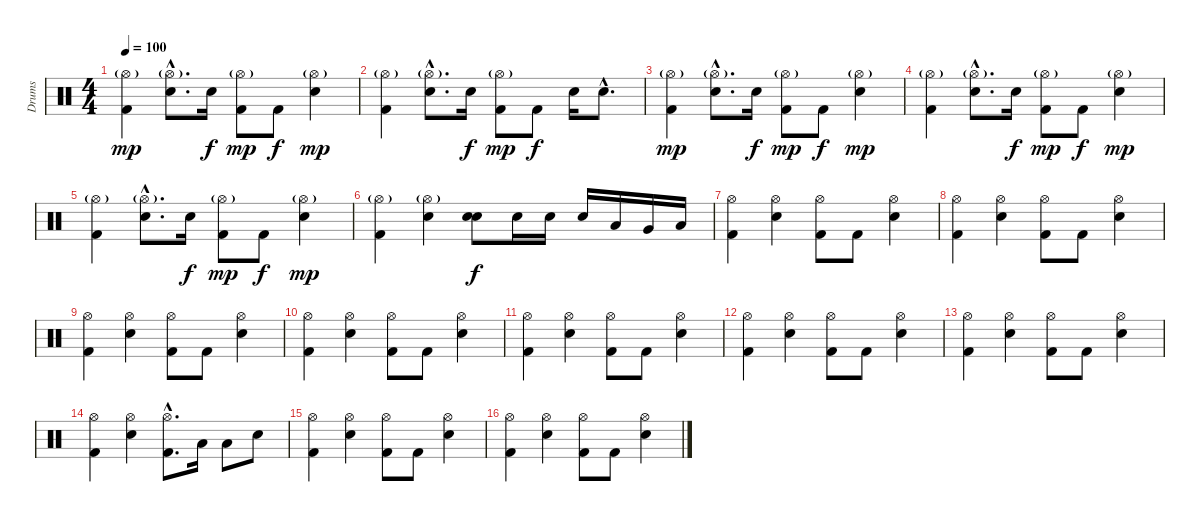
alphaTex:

\track ("Drums" "Drums") {instrument percussion}
\staff {score}
\articulation defaults
\ts (4 4)
\tempo 100
\clef neutral
\ks c
("Hi-Hat (open)"{g} "Kick (hit) 2").4{dy mp} ("Hi-Hat (open)"{g hac} "Electric Snare (hit)"{hac}).8{d} "Electric Snare (hit)".16{dy f} ("Hi-Hat (open)"{g} "Kick (hit) 2").8{dy mp} "Kick (hit) 2".8{dy f} ("Hi-Hat (open)"{g} "Electric Snare (hit)").4{dy mp} |
("Hi-Hat (open)"{g} "Kick (hit) 2").4 ("Hi-Hat (open)"{g hac} "Electric Snare (hit)"{hac}).8{d} "Electric Snare (hit)".16{dy f} ("Hi-Hat (open)"{g} "Kick (hit) 2").8{dy mp} "Kick (hit) 2".8{dy f} "Electric Snare (hit)".16 "Electric Snare (hit)"{hac}.8{d} |
("Hi-Hat (open)"{g} "Kick (hit) 2").4{dy mp} ("Hi-Hat (open)"{g hac} "Electric Snare (hit)"{hac}).8{d} "Electric Snare (hit)".16{dy f} ("Hi-Hat (open)"{g} "Kick (hit) 2").8{dy mp} "Kick (hit) 2".8{dy f} ("Hi-Hat (open)"{g} "Electric Snare (hit)").4{dy mp} |
("Hi-Hat (open)"{g} "Kick (hit) 2").4 ("Hi-Hat (open)"{g hac} "Electric Snare (hit)"{hac}).8{d} "Electric Snare (hit)".16{dy f} ("Hi-Hat (open)"{g} "Kick (hit) 2").8{dy mp} "Kick (hit) 2".8{dy f} ("Hi-Hat (open)"{g} "Electric Snare (hit)").4{dy mp} |
("Hi-Hat (open)"{g} "Kick (hit) 2").4 ("Hi-Hat (open)"{g hac} "Electric Snare (hit)"{hac}).8{d} "Electric Snare (hit)".16{dy f} ("Hi-Hat (open)"{g} "Kick (hit) 2").8{dy mp} "Kick (hit) 2".8{dy f} ("Hi-Hat (open)"{g} "Electric Snare (hit)").4{dy mp} |
("Hi-Hat (open)"{g} "Kick (hit) 2").4 ("Hi-Hat (open)"{g} "Electric Snare (hit)").4 ("Electric Snare (hit)" "Electric Snare (hit)").8{bd 240 dy f} "Electric Snare (hit)".16 "Electric Snare (hit)".16 "Electric Snare (hit)".16 "Low Tom (hit)".16 "Very Low Tom (hit)".16 "Low Floor Tom (hit)".16 |
("Hi-Hat (open)" "Kick (hit) 2").4 ("Hi-Hat (open)" "Electric Snare (hit)").4 ("Hi-Hat (open)" "Kick (hit) 2").8 "Kick (hit) 2".8 ("Hi-Hat (open)" "Electric Snare (hit)").4 |
("Hi-Hat (open)" "Kick (hit) 2").4 ("Hi-Hat (open)" "Electric Snare (hit)").4 ("Hi-Hat (open)" "Kick (hit) 2").8 "Kick (hit) 2".8 ("Hi-Hat (open)" "Electric Snare (hit)").4 |
("Hi-Hat (open)" "Kick (hit) 2").4 ("Hi-Hat (open)" "Electric Snare (hit)").4 ("Hi-Hat (open)" "Kick (hit) 2").8 "Kick (hit) 2".8 ("Hi-Hat (open)" "Electric Snare (hit)").4 |
("Hi-Hat (open)" "Kick (hit) 2").4 ("Hi-Hat (open)" "Electric Snare (hit)").4 ("Hi-Hat (open)" "Kick (hit) 2").8 "Kick (hit) 2".8 ("Hi-Hat (open)" "Electric Snare (hit)").4 |
("Hi-Hat (open)" "Kick (hit) 2").4 ("Hi-Hat (open)" "Electric Snare (hit)").4 ("Hi-Hat (open)" "Kick (hit) 2").8 "Kick (hit) 2".8 ("Hi-Hat (open)" "Electric Snare (hit)").4 |
("Hi-Hat (open)" "Kick (hit) 2").4 ("Hi-Hat (open)" "Electric Snare (hit)").4 ("Hi-Hat (open)" "Kick (hit) 2").8 "Kick (hit) 2".8 ("Hi-Hat (open)" "Electric Snare (hit)").4 |
("Hi-Hat (open)" "Kick (hit) 2").4 ("Hi-Hat (open)" "Electric Snare (hit)").4 ("Hi-Hat (open)" "Kick (hit) 2").8 "Kick (hit) 2".8 ("Hi-Hat (open)" "Electric Snare (hit)").4 |
("Hi-Hat (open)" "Kick (hit) 2").4 ("Hi-Hat (open)" "Electric Snare (hit)").4 ("Hi-Hat (open)"{hac} "Kick (hit) 2"{hac}).8{d} "Low Tom (hit)".16 "Low Tom (hit)".8 "Electric Snare (hit)".8 |
("Hi-Hat (open)" "Kick (hit) 2").4 ("Hi-Hat (open)" "Electric Snare (hit)").4 ("Hi-Hat (open)" "Kick (hit) 2").8 "Kick (hit) 2".8 ("Hi-Hat (open)" "Electric Snare (hit)").4 |
("Hi-Hat (open)" "Kick (hit) 2").4 ("Hi-Hat (open)" "Electric Snare (hit)").4 ("Hi-Hat (open)" "Kick (hit) 2").8 "Kick (hit) 2".8 ("Hi-Hat (open)" "Electric Snare (hit)").4
